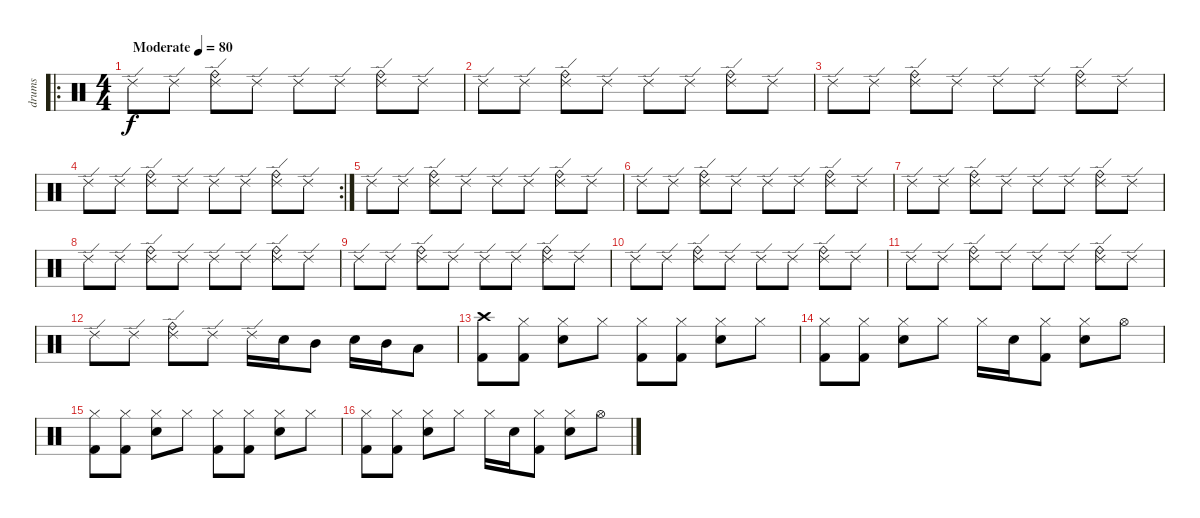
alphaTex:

\track ("drums" "drums") {instrument percussion}
\staff
\articulation defaults
\ro
\ts (4 4)
\tempo (80 "Moderate")
\clef neutral
\ks c "Ride (edge) 2".8{dy f} "Ride (edge) 2".8
("Ride (edge) 2" "Ride (bell)").8 "Ride (edge) 2".8 "Ride (edge) 2".8 "Ride (edge) 2".8 ("Ride (edge) 2" "Ride (bell)").8 "Ride (edge) 2".8 |
"Ride (edge) 2".8 "Ride (edge) 2".8 ("Ride (edge) 2" "Ride (bell)").8 "Ride (edge) 2".8 "Ride (edge) 2".8 "Ride (edge) 2".8 ("Ride (edge) 2" "Ride (bell)").8 "Ride (edge) 2".8 |
"Ride (edge) 2".8 "Ride (edge) 2".8 ("Ride (edge) 2" "Ride (bell)").8 "Ride (edge) 2".8 "Ride (edge) 2".8 "Ride (edge) 2".8 ("Ride (edge) 2" "Ride (bell)").8 "Ride (edge) 2".8 |
\rc 2 "Ride (edge) 2".8 "Ride (edge) 2".8
("Ride (edge) 2" "Ride (bell)").8 "Ride (edge) 2".8 "Ride (edge) 2".8 "Ride (edge) 2".8 ("Ride (edge) 2" "Ride (bell)").8 "Ride (edge) 2".8 |
"Ride (edge) 2".8 "Ride (edge) 2".8 ("Ride (edge) 2" "Ride (bell)").8 "Ride (edge) 2".8 "Ride (edge) 2".8 "Ride (edge) 2".8 ("Ride (edge) 2" "Ride (bell)").8 "Ride (edge) 2".8 |
"Ride (edge) 2".8 "Ride (edge) 2".8 ("Ride (edge) 2" "Ride (bell)").8 "Ride (edge) 2".8 "Ride (edge) 2".8 "Ride (edge) 2".8 ("Ride (edge) 2" "Ride (bell)").8 "Ride (edge) 2".8 |
"Ride (edge) 2".8 "Ride (edge) 2".8 ("Ride (edge) 2" "Ride (bell)").8 "Ride (edge) 2".8 "Ride (edge) 2".8 "Ride (edge) 2".8 ("Ride (edge) 2" "Ride (bell)").8 "Ride (edge) 2".8 |
"Ride (edge) 2".8 "Ride (edge) 2".8 ("Ride (edge) 2" "Ride (bell)").8 "Ride (edge) 2".8 "Ride (edge) 2".8 "Ride (edge) 2".8 ("Ride (edge) 2" "Ride (bell)").8 "Ride (edge) 2".8 |
"Ride (edge) 2".8 "Ride (edge) 2".8 ("Ride (edge) 2" "Ride (bell)").8 "Ride (edge) 2".8 "Ride (edge) 2".8 "Ride (edge) 2".8 ("Ride (edge) 2" "Ride (bell)").8 "Ride (edge) 2".8 |
"Ride (edge) 2".8 "Ride (edge) 2".8 ("Ride (edge) 2" "Ride (bell)").8 "Ride (edge) 2".8 "Ride (edge) 2".8 "Ride (edge) 2".8 ("Ride (edge) 2" "Ride (bell)").8 "Ride (edge) 2".8 |
"Ride (edge) 2".8 "Ride (edge) 2".8 ("Ride (edge) 2" "Ride (bell)").8 "Ride (edge) 2".8 "Ride (edge) 2".8 "Ride (edge) 2".8 ("Ride (edge) 2" "Ride (bell)").8 "Ride (edge) 2".8 |
"Ride (edge) 2".8 "Ride (edge) 2".8 ("Ride (edge) 2" "Ride (bell)").8 "Ride (edge) 2".8 "Ride (edge) 2".16 "Electric Snare (hit)".16 "Mid Tom (hit)".8 "Electric Snare (hit)".16 "Mid Tom (hit)".16 "Low Tom (hit)".8 |
("Crash high (hit)" "Kick (hit) 2").8 ("Hi-Hat (closed)" "Kick (hit) 2").8 ("Hi-Hat (closed)" "Electric Snare (hit)").8 "Hi-Hat (closed)".8 ("Hi-Hat (closed)" "Kick (hit) 2").8 ("Hi-Hat (closed)" "Kick (hit) 2").8 ("Hi-Hat (closed)" "Electric Snare (hit)").8 "Hi-Hat (closed)".8 |
("Hi-Hat (closed)" "Kick (hit) 2").8 ("Hi-Hat (closed)" "Kick (hit) 2").8 ("Hi-Hat (closed)" "Electric Snare (hit)").8 "Hi-Hat (closed)".8 "Hi-Hat (closed)".16 "Electric Snare (hit)".16 ("Hi-Hat (closed)" "Kick (hit) 2").8 ("Hi-Hat (closed)" "Electric Snare (hit)").8 "Hi-Hat (open)".8 |
("Hi-Hat (closed)" "Kick (hit) 2").8 ("Hi-Hat (closed)" "Kick (hit) 2").8 ("Hi-Hat (closed)" "Electric Snare (hit)").8 "Hi-Hat (closed)".8 ("Hi-Hat (closed)" "Kick (hit) 2").8 ("Hi-Hat (closed)" "Kick (hit) 2").8 ("Hi-Hat (closed)" "Electric Snare (hit)").8 "Hi-Hat (closed)".8 |
("Hi-Hat (closed)" "Kick (hit) 2").8 ("Hi-Hat (closed)" "Kick (hit) 2").8 ("Hi-Hat (closed)" "Electric Snare (hit)").8 "Hi-Hat (closed)".8 "Hi-Hat (closed)".16 "Electric Snare (hit)".16 ("Hi-Hat (closed)" "Kick (hit) 2").8 ("Hi-Hat (closed)" "Electric Snare (hit)").8 "Hi-Hat (open)".8
